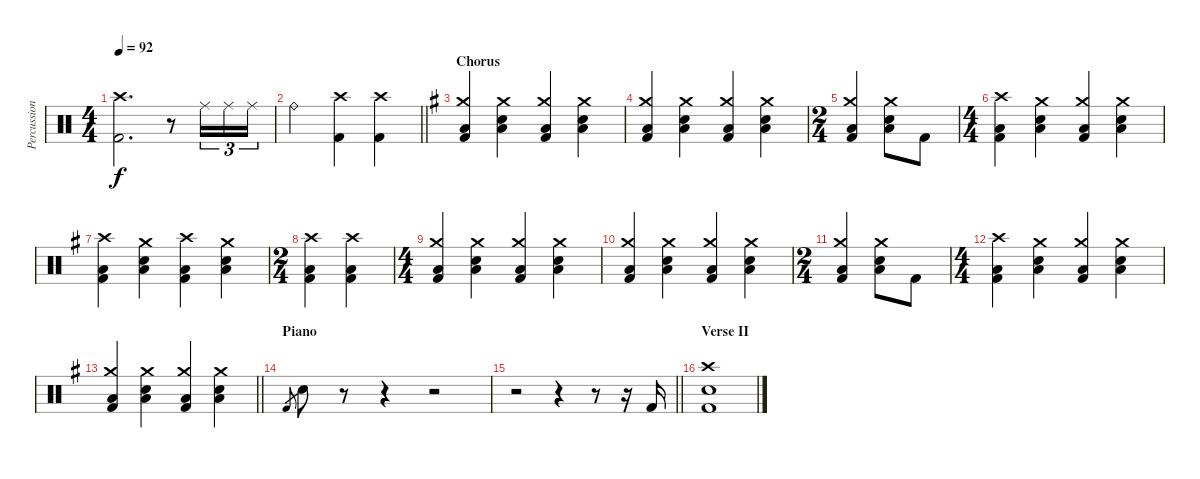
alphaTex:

\track ("Percussion" "Percussion") {instrument percussion}
\staff {score}
\articulation defaults
\ts (4 4)
\tempo 92
\clef neutral
\ks aminor
("Crash high (hit)" "Kick (hit) 2").2{d dy f} r.8 "Ride (middle)".16{tu (3 2)} "Ride (middle)".16{tu (3 2)} "Ride (middle)".16{tu (3 2)} |
\barLineRight lightlight "Ride (bell)".2
("Crash high (hit)" "Kick (hit) 2").4 ("Crash high (hit)" "Kick (hit) 2").4 |
\section ("" "Chorus")
\ks eminor
("Crash medium (hit)" "Low Floor Tom (hit)" "Kick (hit) 2").4 ("Crash medium (hit)" "Electric Snare (hit)" "Low Floor Tom (hit)").4 ("Crash medium (hit)" "Low Floor Tom (hit)" "Kick (hit) 2").4 ("Crash medium (hit)" "Electric Snare (hit)" "Low Floor Tom (hit)").4 |
("Crash medium (hit)" "Low Floor Tom (hit)" "Kick (hit) 2").4 ("Crash medium (hit)" "Electric Snare (hit)" "Low Floor Tom (hit)").4 ("Crash medium (hit)" "Low Floor Tom (hit)" "Kick (hit) 2").4 ("Crash medium (hit)" "Electric Snare (hit)" "Low Floor Tom (hit)").4 |
\ts (2 4)
("Crash medium (hit)" "Low Floor Tom (hit)" "Kick (hit) 2").4 ("Crash medium (hit)" "Electric Snare (hit)" "Low Floor Tom (hit)").8 "Kick (hit) 2".8 |
\ts (4 4)
("Crash high (hit)" "Low Floor Tom (hit)" "Kick (hit) 2").4 ("Crash medium (hit)" "Electric Snare (hit)" "Low Floor Tom (hit)").4 ("Crash medium (hit)" "Low Floor Tom (hit)" "Kick (hit) 2").4 ("Crash medium (hit)" "Electric Snare (hit)" "Low Floor Tom (hit)").4 |
("Crash high (hit)" "Low Floor Tom (hit)" "Kick (hit) 2").4 ("Crash medium (hit)" "Electric Snare (hit)" "Low Floor Tom (hit)").4 ("Crash high (hit)" "Low Floor Tom (hit)" "Kick (hit) 2").4 ("Crash medium (hit)" "Electric Snare (hit)" "Low Floor Tom (hit)").4 |
\ts (2 4)
("Crash high (hit)" "Low Floor Tom (hit)" "Kick (hit) 2").4 ("Crash high (hit)" "Low Floor Tom (hit)" "Kick (hit) 2").4 |
\ts (4 4)
("Crash medium (hit)" "Low Floor Tom (hit)" "Kick (hit) 2").4 ("Crash medium (hit)" "Electric Snare (hit)" "Low Floor Tom (hit)").4 ("Crash medium (hit)" "Low Floor Tom (hit)" "Kick (hit) 2").4 ("Crash medium (hit)" "Electric Snare (hit)" "Low Floor Tom (hit)").4 |
("Crash medium (hit)" "Low Floor Tom (hit)" "Kick (hit) 2").4 ("Crash medium (hit)" "Electric Snare (hit)" "Low Floor Tom (hit)").4 ("Crash medium (hit)" "Low Floor Tom (hit)" "Kick (hit) 2").4 ("Crash medium (hit)" "Electric Snare (hit)" "Low Floor Tom (hit)").4 |
\ts (2 4)
("Crash medium (hit)" "Low Floor Tom (hit)" "Kick (hit) 2").4 ("Crash medium (hit)" "Electric Snare (hit)" "Low Floor Tom (hit)").8 "Kick (hit) 2".8 |
\ts (4 4)
("Crash high (hit)" "Low Floor Tom (hit)" "Kick (hit) 2").4 ("Crash medium (hit)" "Electric Snare (hit)" "Low Floor Tom (hit)").4 ("Crash medium (hit)" "Low Floor Tom (hit)" "Kick (hit) 2").4 ("Crash medium (hit)" "Electric Snare (hit)" "Low Floor Tom (hit)").4 |
\barLineRight lightlight
("Crash medium (hit)" "Low Floor Tom (hit)" "Kick (hit) 2").4 ("Crash medium (hit)" "Electric Snare (hit)" "Low Floor Tom (hit)").4 ("Crash medium (hit)" "Low Floor Tom (hit)" "Kick (hit) 2").4 ("Crash medium (hit)" "Electric Snare (hit)" "Low Floor Tom (hit)").4 |
\section ("" "Piano")
"Kick (hit) 2".8{gr} "Electric Snare (hit)".8 r.8 r.4 r.2 |
\barLineRight lightlight
r.2 r.4 r.8 r.16 "Kick (hit) 2".16 |
\section ("" "Verse II")
("Crash high (hit)" "Electric Snare (hit)" "Kick (hit) 2").1
